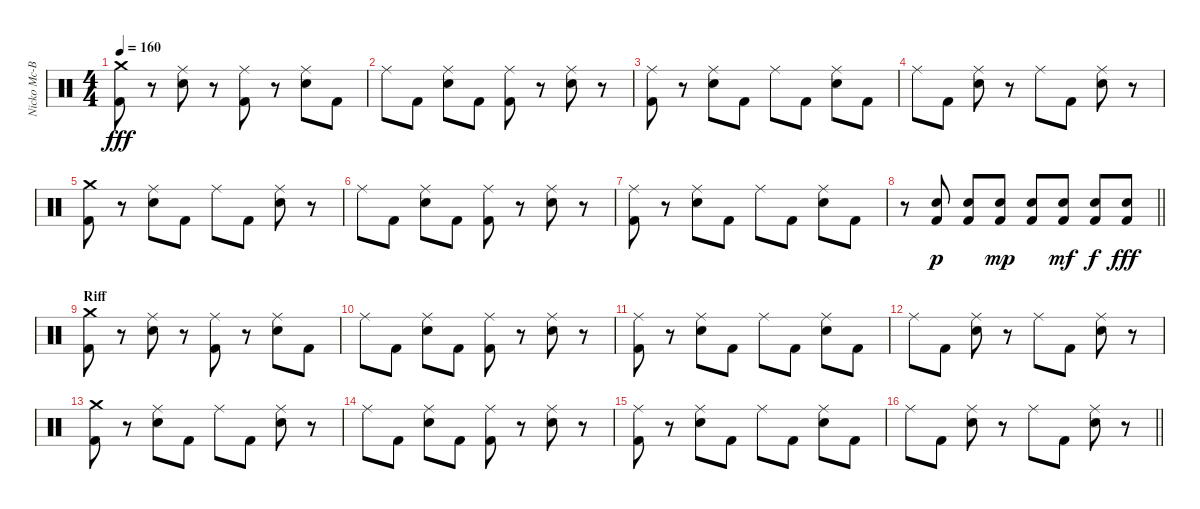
\track ("Nicko Mc-Brain" "Nicko Mc-B") {instrument percussion}
\staff {score}
\articulation defaults
\ts (4 4)
\tempo 160
\clef neutral
\ks c
("Crash medium (hit)" "Kick (hit) 2").8{dy fff} r.8 ("Ride (middle)" "Snare (hit) 2").8 r.8 ("Ride (middle)" "Kick (hit) 2").8 r.8 ("Ride (middle)" "Snare (hit) 2").8 "Kick (hit) 2".8 |
"Ride (middle)".8 "Kick (hit) 2".8 ("Ride (middle)" "Snare (hit) 2").8 "Kick (hit) 2".8 ("Ride (middle)" "Kick (hit) 2").8 r.8 ("Ride (middle)" "Snare (hit) 2").8 r.8 |
("Ride (middle)" "Kick (hit) 2").8 r.8 ("Ride (middle)" "Snare (hit) 2").8 "Kick (hit) 2".8 "Ride (middle)".8 "Kick (hit) 2".8 ("Ride (middle)" "Snare (hit) 2").8 "Kick (hit) 2".8 |
"Ride (middle)".8 "Kick (hit) 2".8 ("Ride (middle)" "Snare (hit) 2").8 r.8 "Ride (middle)".8 "Kick (hit) 2".8 ("Ride (middle)" "Snare (hit) 2").8 r.8 |
("Crash medium (hit)" "Kick (hit) 2").8 r.8 ("Ride (middle)" "Snare (hit) 2").8 "Kick (hit) 2".8 "Ride (middle)".8 "Kick (hit) 2".8 ("Ride (middle)" "Snare (hit) 2").8 r.8 |
"Ride (middle)".8 "Kick (hit) 2".8 ("Ride (middle)" "Snare (hit) 2").8 "Kick (hit) 2".8 ("Ride (middle)" "Kick (hit) 2").8 r.8 ("Ride (middle)" "Snare (hit) 2").8 r.8 |
("Ride (middle)" "Kick (hit) 2").8 r.8 ("Ride (middle)" "Snare (hit) 2").8 "Kick (hit) 2".8 "Ride (middle)".8 "Kick (hit) 2".8 ("Ride (middle)" "Snare (hit) 2").8 "Kick (hit) 2".8 |
\barLineRight lightlight
r.8 ("Snare (hit) 2" "Kick (hit) 2").8{dy p} ("Snare (hit) 2" "Kick (hit) 2").8 ("Snare (hit) 2" "Kick (hit) 2").8{dy mp} ("Snare (hit) 2" "Kick (hit) 2").8 ("Snare (hit) 2" "Kick (hit) 2").8{dy mf} ("Snare (hit) 2" "Kick (hit) 2").8{dy f} ("Snare (hit) 2" "Kick (hit) 2").8{dy fff} |
\section ("" "Riff")
("Crash medium (hit)" "Kick (hit) 2").8 r.8 ("Ride (middle)" "Snare (hit) 2").8 r.8 ("Ride (middle)" "Kick (hit) 2").8 r.8 ("Ride (middle)" "Snare (hit) 2").8 "Kick (hit) 2".8 |
"Ride (middle)".8 "Kick (hit) 2".8 ("Ride (middle)" "Snare (hit) 2").8 "Kick (hit) 2".8 ("Ride (middle)" "Kick (hit) 2").8 r.8 ("Ride (middle)" "Snare (hit) 2").8 r.8 |
("Ride (middle)" "Kick (hit) 2").8 r.8 ("Ride (middle)" "Snare (hit) 2").8 "Kick (hit) 2".8 "Ride (middle)".8 "Kick (hit) 2".8 ("Ride (middle)" "Snare (hit) 2").8 "Kick (hit) 2".8 |
"Ride (middle)".8 "Kick (hit) 2".8 ("Ride (middle)" "Snare (hit) 2").8 r.8 "Ride (middle)".8 "Kick (hit) 2".8 ("Ride (middle)" "Snare (hit) 2").8 r.8 |
("Crash medium (hit)" "Kick (hit) 2").8 r.8 ("Ride (middle)" "Snare (hit) 2").8 "Kick (hit) 2".8 "Ride (middle)".8 "Kick (hit) 2".8 ("Ride (middle)" "Snare (hit) 2").8 r.8 |
"Ride (middle)".8 "Kick (hit) 2".8 ("Ride (middle)" "Snare (hit) 2").8 "Kick (hit) 2".8 ("Ride (middle)" "Kick (hit) 2").8 r.8 ("Ride (middle)" "Snare (hit) 2").8 r.8 |
("Ride (middle)" "Kick (hit) 2").8 r.8 ("Ride (middle)" "Snare (hit) 2").8 "Kick (hit) 2".8 "Ride (middle)".8 "Kick (hit) 2".8 ("Ride (middle)" "Snare (hit) 2").8 "Kick (hit) 2".8 |
\barLineRight lightlight "Ride (middle)".8 "Kick (hit) 2".8
("Ride (middle)" "Snare (hit) 2").8 r.8 "Ride (middle)".8 "Kick (hit) 2".8 ("Ride (middle)" "Snare (hit) 2").8 r.8
